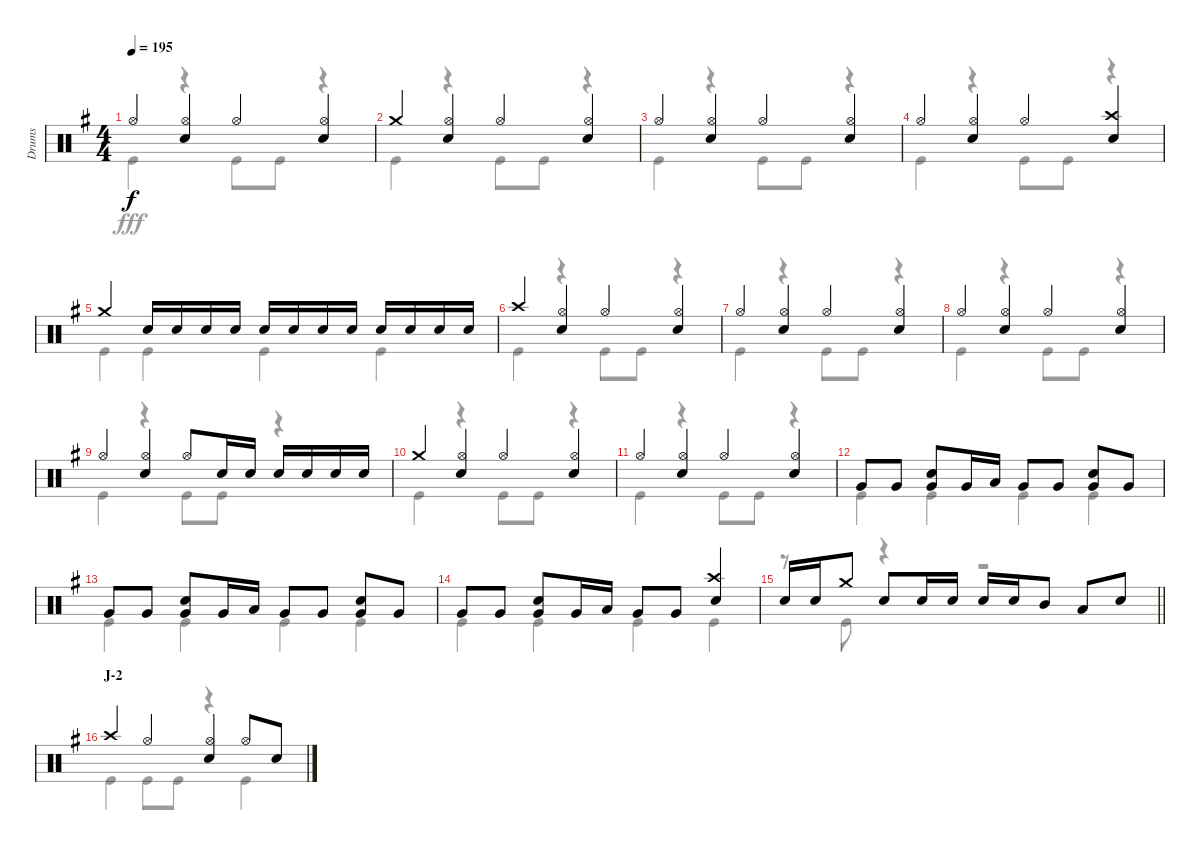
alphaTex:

\track ("Drums" "Drums") {instrument percussion}
\staff {score}
\articulation defaults
\voice
\ts (4 4)
\tempo 195
\clef neutral
\ks g "Hi-Hat (open)".4{dy f}
("Hi-Hat (open)" "Snare (hit) 2").4 "Hi-Hat (open)".4 ("Hi-Hat (open)" "Snare (hit) 2").4 |
"Crash medium (hit)".4 ("Hi-Hat (open)" "Snare (hit) 2").4 "Hi-Hat (open)".4 ("Hi-Hat (open)" "Snare (hit) 2").4 |
"Hi-Hat (open)".4 ("Hi-Hat (open)" "Snare (hit) 2").4 "Hi-Hat (open)".4 ("Hi-Hat (open)" "Snare (hit) 2").4 |
"Hi-Hat (open)".4 ("Hi-Hat (open)" "Snare (hit) 2").4 "Hi-Hat (open)".4 ("Crash high (hit)" "Snare (hit) 2").4 |
"Crash medium (hit)".4 "Snare (hit) 2".16 "Snare (hit) 2".16 "Snare (hit) 2".16 "Snare (hit) 2".16 "Snare (hit) 2".16 "Snare (hit) 2".16 "Snare (hit) 2".16 "Snare (hit) 2".16 "Snare (hit) 2".16 "Snare (hit) 2".16 "Snare (hit) 2".16 "Snare (hit) 2".16 |
"Crash high (hit)".4 ("Hi-Hat (open)" "Snare (hit) 2").4 "Hi-Hat (open)".4 ("Hi-Hat (open)" "Snare (hit) 2").4 |
"Hi-Hat (open)".4 ("Hi-Hat (open)" "Snare (hit) 2").4 "Hi-Hat (open)".4 ("Hi-Hat (open)" "Snare (hit) 2").4 |
"Hi-Hat (open)".4 ("Hi-Hat (open)" "Snare (hit) 2").4 "Hi-Hat (open)".4 ("Hi-Hat (open)" "Snare (hit) 2").4 |
"Hi-Hat (open)".4 ("Hi-Hat (open)" "Snare (hit) 2").4 "Hi-Hat (open)".8 "Snare (hit) 2".16 "Snare (hit) 2".16 "Snare (hit) 2".16 "Snare (hit) 2".16 "Snare (hit) 2".16 "Snare (hit) 2".16 |
"Crash medium (hit)".4 ("Hi-Hat (open)" "Snare (hit) 2").4 "Hi-Hat (open)".4 ("Hi-Hat (open)" "Snare (hit) 2").4 |
"Hi-Hat (open)".4 ("Hi-Hat (open)" "Snare (hit) 2").4 "Hi-Hat (open)".4 ("Hi-Hat (open)" "Snare (hit) 2").4 |
"Very Low Tom (hit)".8 "Very Low Tom (hit)".8 ("Snare (hit) 2" "Very Low Tom (hit)").8 "Very Low Tom (hit)".16 "Low Tom (hit)".16 "Very Low Tom (hit)".8 "Very Low Tom (hit)".8 ("Snare (hit) 2" "Very Low Tom (hit)").8 "Very Low Tom (hit)".8 |
"Very Low Tom (hit)".8 "Very Low Tom (hit)".8 ("Snare (hit) 2" "Very Low Tom (hit)").8 "Very Low Tom (hit)".16 "Low Tom (hit)".16 "Very Low Tom (hit)".8 "Very Low Tom (hit)".8 ("Snare (hit) 2" "Very Low Tom (hit)").8 "Very Low Tom (hit)".8 |
"Very Low Tom (hit)".8 "Very Low Tom (hit)".8 ("Snare (hit) 2" "Very Low Tom (hit)").8 "Very Low Tom (hit)".16 "Low Tom (hit)".16 "Very Low Tom (hit)".8 "Very Low Tom (hit)".8 ("Crash high (hit)" "Snare (hit) 2").4 |
\barLineRight lightlight "Snare (hit) 2".16 "Snare (hit) 2".16 "Crash medium (hit)".8 "Snare (hit) 2".8 "Snare (hit) 2".16 "Snare (hit) 2".16 "Snare (hit) 2".16 "Snare (hit) 2".16 "Mid Tom (hit)".8 "Low Tom (hit)".8 "Snare (hit) 2".8
|
\section ("" "J-2")
"Crash high (hit)".4 "Hi-Hat (open)".4 ("Hi-Hat (open)" "Snare (hit) 2").4 "Hi-Hat (open)".8 "Snare (hit) 2".8
\voice
\clef neutral
\ottava regular
\simile none
\ks g "Kick (hit)".4{dy fff}
r.4 "Kick (hit)".8 "Kick (hit)".8 r.4 |
"Kick (hit)".4 r.4 "Kick (hit)".8 "Kick (hit)".8 r.4 |
"Kick (hit)".4 r.4 "Kick (hit)".8 "Kick (hit)".8 r.4 |
"Kick (hit)".4 r.4 "Kick (hit)".8 "Kick (hit)".8 r.4 |
"Kick (hit)".4 "Kick (hit)".4 "Kick (hit)".4 "Kick (hit)".4 |
"Kick (hit)".4 r.4 "Kick (hit)".8 "Kick (hit)".8 r.4 |
"Kick (hit)".4 r.4 "Kick (hit)".8 "Kick (hit)".8 r.4 |
"Kick (hit)".4 r.4 "Kick (hit)".8 "Kick (hit)".8 r.4 |
"Kick (hit)".4 r.4 "Kick (hit)".8 "Kick (hit)".8 r.4 |
"Kick (hit)".4 r.4 "Kick (hit)".8 "Kick (hit)".8 r.4 |
"Kick (hit)".4 r.4 "Kick (hit)".8 "Kick (hit)".8 r.4 |
"Kick (hit)".4 "Kick (hit)".4 "Kick (hit)".4 "Kick (hit)".4 |
"Kick (hit)".4 "Kick (hit)".4 "Kick (hit)".4 "Kick (hit)".4 |
"Kick (hit)".4 "Kick (hit)".4 "Kick (hit)".4 "Kick (hit)".4 |
\barLineRight lightlight
r.8 "Kick (hit)".8 r.4 r.2 |
"Kick (hit)".4 "Kick (hit)".8 "Kick (hit)".8 r.4 "Kick (hit)".4
